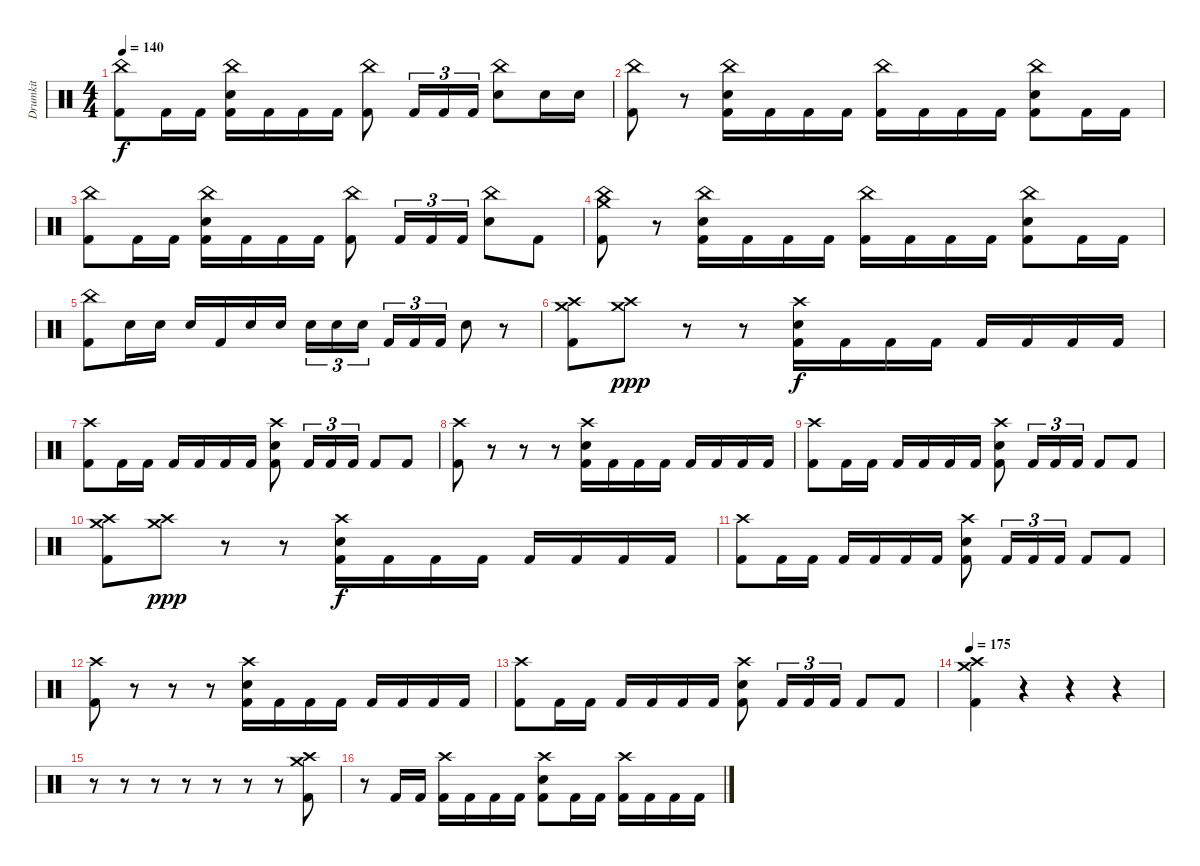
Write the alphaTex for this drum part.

\track ("Drumkit" "Drumkit") {instrument percussion}
\staff {score}
\articulation defaults
\ts (4 4)
\tempo 140
\clef neutral
\ks c
("China (hit)" "Kick (hit) 2").8{dy f} "Kick (hit) 2".16 "Kick (hit) 2".16 ("China (hit)" "Electric Snare (hit)" "Kick (hit) 2").16 "Kick (hit) 2".16 "Kick (hit) 2".16 "Kick (hit) 2".16 ("China (hit)" "Kick (hit) 2").8 "Kick (hit) 2".16{tu (3 2)} "Kick (hit) 2".16{tu (3 2)} "Kick (hit) 2".16{tu (3 2)} ("China (hit)" "Electric Snare (hit)").8 "Electric Snare (hit)".16 "Electric Snare (hit)".16 |
("China (hit)" "Kick (hit) 2").8 r.8 ("China (hit)" "Electric Snare (hit)" "Kick (hit) 2").16 "Kick (hit) 2".16 "Kick (hit) 2".16 "Kick (hit) 2".16 ("China (hit)" "Kick (hit) 2").16 "Kick (hit) 2".16 "Kick (hit) 2".16 "Kick (hit) 2".16 ("China (hit)" "Electric Snare (hit)" "Kick (hit) 2").8 "Kick (hit) 2".16 "Kick (hit) 2".16 |
("China (hit)" "Kick (hit) 2").8 "Kick (hit) 2".16 "Kick (hit) 2".16 ("China (hit)" "Electric Snare (hit)" "Kick (hit) 2").16 "Kick (hit) 2".16 "Kick (hit) 2".16 "Kick (hit) 2".16 ("China (hit)" "Kick (hit) 2").8 "Kick (hit) 2".16{tu (3 2)} "Kick (hit) 2".16{tu (3 2)} "Kick (hit) 2".16{tu (3 2)} ("China (hit)" "Electric Snare (hit)").8 "Kick (hit) 2".8 |
("Crash medium (hit)" "China (hit)" "Kick (hit) 2").8 r.8 ("China (hit)" "Electric Snare (hit)" "Kick (hit) 2").16 "Kick (hit) 2".16 "Kick (hit) 2".16 "Kick (hit) 2".16 ("China (hit)" "Kick (hit) 2").16 "Kick (hit) 2".16 "Kick (hit) 2".16 "Kick (hit) 2".16 ("China (hit)" "Electric Snare (hit)" "Kick (hit) 2").8 "Kick (hit) 2".16 "Kick (hit) 2".16 |
("China (hit)" "Kick (hit) 2").8 "Electric Snare (hit)".16 "Electric Snare (hit)".16 "Electric Snare (hit)".16 "Kick (hit) 2".16 "Electric Snare (hit)".16 "Electric Snare (hit)".16 "Electric Snare (hit)".16{tu (3 2)} "Electric Snare (hit)".16{tu (3 2)} "Electric Snare (hit)".16{tu (3 2) beam splitsecondary} "Kick (hit) 2".16{tu (3 2)} "Kick (hit) 2".16{tu (3 2)} "Kick (hit) 2".16{tu (3 2)} "Electric Snare (hit)".8 r.8 |
("Crash medium (hit)" "Crash high (hit)" "Kick (hit) 2").8 ("Crash medium (hit)" "Crash high (hit)").8{dy ppp} r.8 r.8 ("Crash high (hit)" "Electric Snare (hit)" "Kick (hit) 2").16{dy f} "Kick (hit) 2".16 "Kick (hit) 2".16 "Kick (hit) 2".16 "Kick (hit) 2".16 "Kick (hit) 2".16 "Kick (hit) 2".16 "Kick (hit) 2".16 |
("Crash high (hit)" "Kick (hit) 2").8 "Kick (hit) 2".16 "Kick (hit) 2".16 "Kick (hit) 2".16 "Kick (hit) 2".16 "Kick (hit) 2".16 "Kick (hit) 2".16 ("Crash high (hit)" "Electric Snare (hit)" "Kick (hit) 2").8 "Kick (hit) 2".16{tu (3 2)} "Kick (hit) 2".16{tu (3 2)} "Kick (hit) 2".16{tu (3 2)} "Kick (hit) 2".8 "Kick (hit) 2".8 |
("Crash high (hit)" "Kick (hit) 2").8 r.8 r.8 r.8 ("Crash high (hit)" "Electric Snare (hit)" "Kick (hit) 2").16 "Kick (hit) 2".16 "Kick (hit) 2".16 "Kick (hit) 2".16 "Kick (hit) 2".16 "Kick (hit) 2".16 "Kick (hit) 2".16 "Kick (hit) 2".16 |
("Crash high (hit)" "Kick (hit) 2").8 "Kick (hit) 2".16 "Kick (hit) 2".16 "Kick (hit) 2".16 "Kick (hit) 2".16 "Kick (hit) 2".16 "Kick (hit) 2".16 ("Crash high (hit)" "Electric Snare (hit)" "Kick (hit) 2").8 "Kick (hit) 2".16{tu (3 2)} "Kick (hit) 2".16{tu (3 2)} "Kick (hit) 2".16{tu (3 2)} "Kick (hit) 2".8 "Kick (hit) 2".8 |
("Crash medium (hit)" "Crash high (hit)" "Kick (hit) 2").8 ("Crash medium (hit)" "Crash high (hit)").8{dy ppp} r.8 r.8 ("Crash high (hit)" "Electric Snare (hit)" "Kick (hit) 2").16{dy f} "Kick (hit) 2".16 "Kick (hit) 2".16 "Kick (hit) 2".16 "Kick (hit) 2".16 "Kick (hit) 2".16 "Kick (hit) 2".16 "Kick (hit) 2".16 |
("Crash high (hit)" "Kick (hit) 2").8 "Kick (hit) 2".16 "Kick (hit) 2".16 "Kick (hit) 2".16 "Kick (hit) 2".16 "Kick (hit) 2".16 "Kick (hit) 2".16 ("Crash high (hit)" "Electric Snare (hit)" "Kick (hit) 2").8 "Kick (hit) 2".16{tu (3 2)} "Kick (hit) 2".16{tu (3 2)} "Kick (hit) 2".16{tu (3 2)} "Kick (hit) 2".8 "Kick (hit) 2".8 |
("Crash high (hit)" "Kick (hit) 2").8 r.8 r.8 r.8 ("Crash high (hit)" "Electric Snare (hit)" "Kick (hit) 2").16 "Kick (hit) 2".16 "Kick (hit) 2".16 "Kick (hit) 2".16 "Kick (hit) 2".16 "Kick (hit) 2".16 "Kick (hit) 2".16 "Kick (hit) 2".16 |
("Crash high (hit)" "Kick (hit) 2").8 "Kick (hit) 2".16 "Kick (hit) 2".16 "Kick (hit) 2".16 "Kick (hit) 2".16 "Kick (hit) 2".16 "Kick (hit) 2".16 ("Crash high (hit)" "Electric Snare (hit)" "Kick (hit) 2").8 "Kick (hit) 2".16{tu (3 2)} "Kick (hit) 2".16{tu (3 2)} "Kick (hit) 2".16{tu (3 2)} "Kick (hit) 2".8 "Kick (hit) 2".8 |
\tempo 175
("Crash medium (hit)" "Crash high (hit)" "Kick (hit) 2").4 r.4 r.4 r.4 |
r.8 r.8 r.8 r.8 r.8 r.8 r.8 ("Crash medium (hit)" "Crash high (hit)" "Kick (hit) 2").8 |
r.8 "Kick (hit) 2".16 "Kick (hit) 2".16 ("Crash high (hit)" "Kick (hit) 2").16 "Kick (hit) 2".16 "Kick (hit) 2".16 "Kick (hit) 2".16 ("Crash high (hit)" "Electric Snare (hit)" "Kick (hit) 2").8 "Kick (hit) 2".16 "Kick (hit) 2".16 ("Crash high (hit)" "Kick (hit) 2").16 "Kick (hit) 2".16 "Kick (hit) 2".16 "Kick (hit) 2".16
